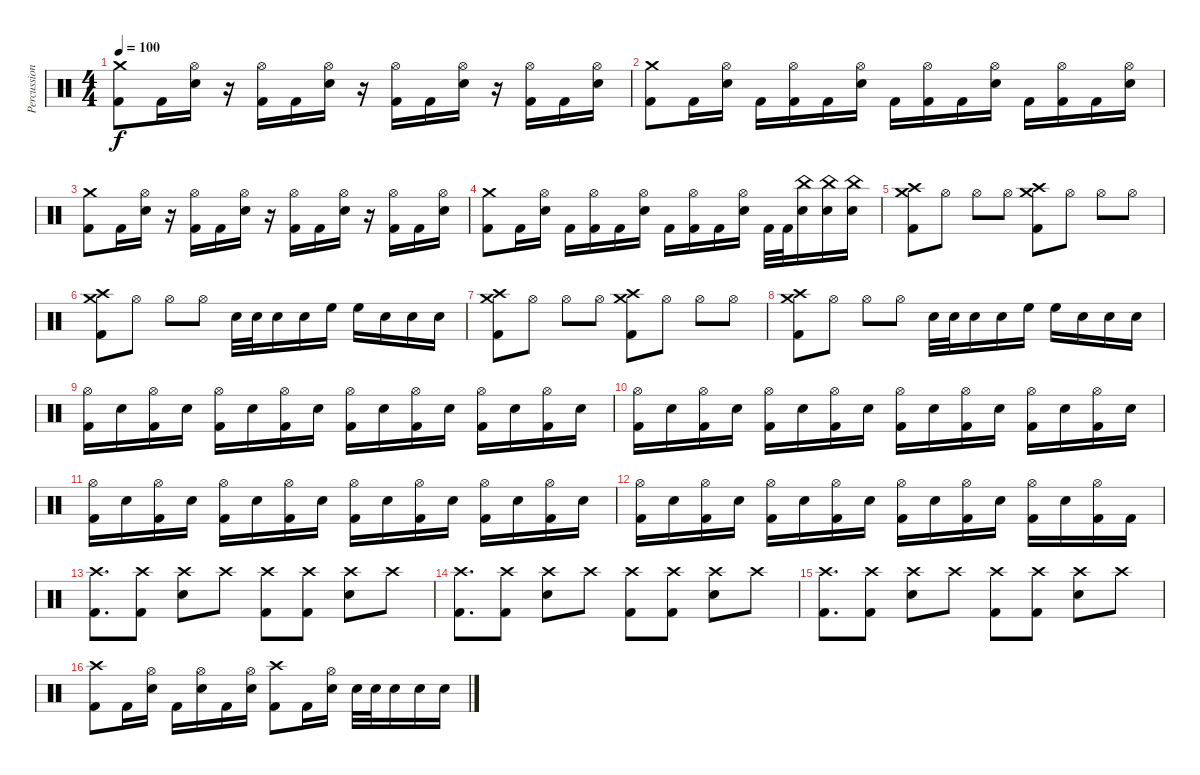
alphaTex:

\track ("Percussion" "Percussion") {instrument percussion}
\staff {score}
\articulation defaults
\ts (4 4)
\tempo 100
\clef neutral
\ks c
("Crash medium (hit)" "Kick (hit) 2").8{dy f} "Kick (hit) 2".16 ("Hi-Hat (open)" "Snare (hit) 2").16 r.16 ("Hi-Hat (open)" "Kick (hit) 2").16 "Kick (hit) 2".16 ("Hi-Hat (open)" "Snare (hit) 2").16 r.16 ("Hi-Hat (open)" "Kick (hit) 2").16 "Kick (hit) 2".16 ("Hi-Hat (open)" "Snare (hit) 2").16 r.16 ("Hi-Hat (open)" "Kick (hit) 2").16 "Kick (hit) 2".16 ("Hi-Hat (open)" "Snare (hit) 2").16 |
("Crash medium (hit)" "Kick (hit) 2").8 "Kick (hit) 2".16 ("Hi-Hat (open)" "Snare (hit) 2").16 "Kick (hit) 2".16 ("Hi-Hat (open)" "Kick (hit) 2").16 "Kick (hit) 2".16 ("Hi-Hat (open)" "Snare (hit) 2").16 "Kick (hit) 2".16 ("Hi-Hat (open)" "Kick (hit) 2").16 "Kick (hit) 2".16 ("Hi-Hat (open)" "Snare (hit) 2").16 "Kick (hit) 2".16 ("Hi-Hat (open)" "Kick (hit) 2").16 "Kick (hit) 2".16 ("Hi-Hat (open)" "Snare (hit) 2").16 |
("Crash medium (hit)" "Kick (hit) 2").8 "Kick (hit) 2".16 ("Hi-Hat (open)" "Snare (hit) 2").16 r.16 ("Hi-Hat (open)" "Kick (hit) 2").16 "Kick (hit) 2".16 ("Hi-Hat (open)" "Snare (hit) 2").16 r.16 ("Hi-Hat (open)" "Kick (hit) 2").16 "Kick (hit) 2".16 ("Hi-Hat (open)" "Snare (hit) 2").16 r.16 ("Hi-Hat (open)" "Kick (hit) 2").16 "Kick (hit) 2".16 ("Hi-Hat (open)" "Snare (hit) 2").16 |
("Crash medium (hit)" "Kick (hit) 2").8 "Kick (hit) 2".16 ("Hi-Hat (open)" "Snare (hit) 2").16 "Kick (hit) 2".16 ("Hi-Hat (open)" "Kick (hit) 2").16 "Kick (hit) 2".16 ("Hi-Hat (open)" "Snare (hit) 2").16 "Kick (hit) 2".16 ("Hi-Hat (open)" "Kick (hit) 2").16 "Kick (hit) 2".16 ("Hi-Hat (open)" "Snare (hit) 2").16 "Kick (hit) 2".32 "Kick (hit) 2".32 ("China (hit)" "Snare (hit) 2").16 ("China (hit)" "Snare (hit) 2").16 ("China (hit)" "Snare (hit) 2").16 |
("Crash high (hit)" "Crash medium (hit)" "Kick (hit) 2").8 "Hi-Hat (open)".8 "Hi-Hat (open)".8 "Hi-Hat (open)".8 ("Crash high (hit)" "Crash medium (hit)" "Kick (hit) 2").8 "Hi-Hat (open)".8 "Hi-Hat (open)".8 "Hi-Hat (open)".8 |
("Crash high (hit)" "Crash medium (hit)" "Kick (hit) 2").8 "Hi-Hat (open)".8 "Hi-Hat (open)".8 "Hi-Hat (open)".8 "Snare (hit) 2".32 "Snare (hit) 2".32 "Snare (hit) 2".16 "Snare (hit) 2".16 "High Floor Tom (hit)".16 "High Floor Tom (hit)".16 "Snare (hit) 2".16 "Snare (hit) 2".16 "Snare (hit) 2".16 |
("Crash high (hit)" "Crash medium (hit)" "Kick (hit) 2").8 "Hi-Hat (open)".8 "Hi-Hat (open)".8 "Hi-Hat (open)".8 ("Crash high (hit)" "Crash medium (hit)" "Kick (hit) 2").8 "Hi-Hat (open)".8 "Hi-Hat (open)".8 "Hi-Hat (open)".8 |
("Crash high (hit)" "Crash medium (hit)" "Kick (hit) 2").8 "Hi-Hat (open)".8 "Hi-Hat (open)".8 "Hi-Hat (open)".8 "Snare (hit) 2".32 "Snare (hit) 2".32 "Snare (hit) 2".16 "Snare (hit) 2".16 "High Floor Tom (hit)".16 "High Floor Tom (hit)".16 "Snare (hit) 2".16 "Snare (hit) 2".16 "Snare (hit) 2".16 |
("Hi-Hat (open)" "Kick (hit) 2").16 "Snare (hit) 2".16 ("Hi-Hat (open)" "Kick (hit) 2").16 "Snare (hit) 2".16 ("Hi-Hat (open)" "Kick (hit) 2").16 "Snare (hit) 2".16 ("Hi-Hat (open)" "Kick (hit) 2").16 "Snare (hit) 2".16 ("Hi-Hat (open)" "Kick (hit) 2").16 "Snare (hit) 2".16 ("Hi-Hat (open)" "Kick (hit) 2").16 "Snare (hit) 2".16 ("Hi-Hat (open)" "Kick (hit) 2").16 "Snare (hit) 2".16 ("Hi-Hat (open)" "Kick (hit) 2").16 "Snare (hit) 2".16 |
("Hi-Hat (open)" "Kick (hit) 2").16 "Snare (hit) 2".16 ("Hi-Hat (open)" "Kick (hit) 2").16 "Snare (hit) 2".16 ("Hi-Hat (open)" "Kick (hit) 2").16 "Snare (hit) 2".16 ("Hi-Hat (open)" "Kick (hit) 2").16 "Snare (hit) 2".16 ("Hi-Hat (open)" "Kick (hit) 2").16 "Snare (hit) 2".16 ("Hi-Hat (open)" "Kick (hit) 2").16 "Snare (hit) 2".16 ("Hi-Hat (open)" "Kick (hit) 2").16 "Snare (hit) 2".16 ("Hi-Hat (open)" "Kick (hit) 2").16 "Snare (hit) 2".16 |
("Hi-Hat (open)" "Kick (hit) 2").16 "Snare (hit) 2".16 ("Hi-Hat (open)" "Kick (hit) 2").16 "Snare (hit) 2".16 ("Hi-Hat (open)" "Kick (hit) 2").16 "Snare (hit) 2".16 ("Hi-Hat (open)" "Kick (hit) 2").16 "Snare (hit) 2".16 ("Hi-Hat (open)" "Kick (hit) 2").16 "Snare (hit) 2".16 ("Hi-Hat (open)" "Kick (hit) 2").16 "Snare (hit) 2".16 ("Hi-Hat (open)" "Kick (hit) 2").16 "Snare (hit) 2".16 ("Hi-Hat (open)" "Kick (hit) 2").16 "Snare (hit) 2".16 |
("Hi-Hat (open)" "Kick (hit) 2").16 "Snare (hit) 2".16 ("Hi-Hat (open)" "Kick (hit) 2").16 "Snare (hit) 2".16 ("Hi-Hat (open)" "Kick (hit) 2").16 "Snare (hit) 2".16 ("Hi-Hat (open)" "Kick (hit) 2").16 "Snare (hit) 2".16 ("Hi-Hat (open)" "Kick (hit) 2").16 "Snare (hit) 2".16 ("Hi-Hat (open)" "Kick (hit) 2").16 "Snare (hit) 2".16 ("Hi-Hat (open)" "Kick (hit) 2").16 "Snare (hit) 2".16 ("Hi-Hat (open)" "Kick (hit) 2").16 "Kick (hit) 2".16 |
("Crash high (hit)" "Kick (hit) 2").8{d} ("Crash high (hit)" "Kick (hit) 2").8 ("Crash high (hit)" "Snare (hit) 2").8 "Crash high (hit)".8 ("Crash high (hit)" "Kick (hit) 2").8 ("Crash high (hit)" "Kick (hit) 2").8 ("Crash high (hit)" "Snare (hit) 2").8 "Crash high (hit)".8 |
("Crash high (hit)" "Kick (hit) 2").8{d} ("Crash high (hit)" "Kick (hit) 2").8 ("Crash high (hit)" "Snare (hit) 2").8 "Crash high (hit)".8 ("Crash high (hit)" "Kick (hit) 2").8 ("Crash high (hit)" "Kick (hit) 2").8 ("Crash high (hit)" "Snare (hit) 2").8 "Crash high (hit)".8 |
("Crash high (hit)" "Kick (hit) 2").8{d} ("Crash high (hit)" "Kick (hit) 2").8 ("Crash high (hit)" "Snare (hit) 2").8 "Crash high (hit)".8 ("Crash high (hit)" "Kick (hit) 2").8 ("Crash high (hit)" "Kick (hit) 2").8 ("Crash high (hit)" "Snare (hit) 2").8 "Crash high (hit)".8 |
("Crash high (hit)" "Kick (hit) 2").8 "Kick (hit) 2".16 ("Hi-Hat (open)" "Snare (hit) 2").16 "Kick (hit) 2".16 ("Hi-Hat (open)" "Snare (hit) 2").16 "Kick (hit) 2".16 ("Hi-Hat (open)" "Snare (hit) 2").16 ("Crash high (hit)" "Kick (hit) 2").8 "Kick (hit) 2".16 ("Hi-Hat (open)" "Snare (hit) 2").16 "Snare (hit) 2".32 "Snare (hit) 2".32 "Snare (hit) 2".16 "Snare (hit) 2".16 "Snare (hit) 2".16
